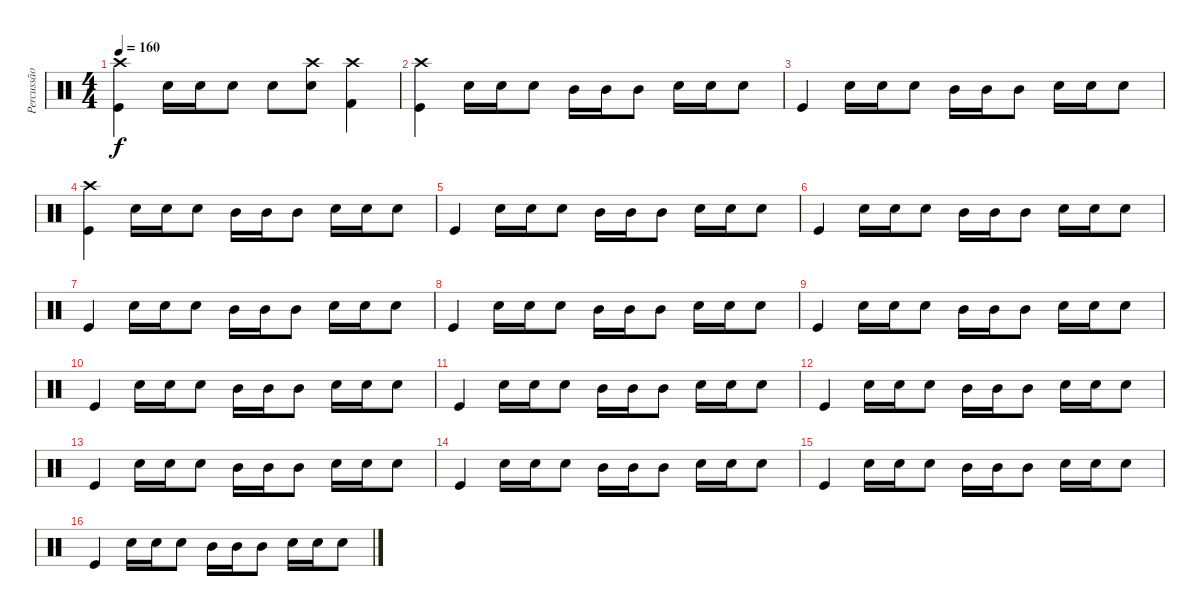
\track ("Percussão" "Percussão") {instrument percussion}
\staff {score}
\articulation defaults
\ts (4 4)
\tempo 160
\clef neutral
\ks c
("Crash high (hit)" "Kick (hit)").4{dy f} "Snare (hit) 2".16 "Snare (hit) 2".16 "Snare (hit) 2".8 "Snare (hit) 2".8 ("Crash high (hit)" "Snare (hit) 2").8 ("Crash high (hit)" "Kick (hit) 2").4 |
("Crash high (hit)" "Kick (hit)").4 "Snare (hit) 2".16 "Snare (hit) 2".16 "Snare (hit) 2".8 "Mid Tom (hit)".16 "Mid Tom (hit)".16 "Mid Tom (hit)".8 "Snare (hit) 2".16 "Snare (hit) 2".16 "Snare (hit) 2".8 |
"Kick (hit)".4 "Snare (hit) 2".16 "Snare (hit) 2".16 "Snare (hit) 2".8 "Mid Tom (hit)".16 "Mid Tom (hit)".16 "Mid Tom (hit)".8 "Snare (hit) 2".16 "Snare (hit) 2".16 "Snare (hit) 2".8 |
("Crash high (hit)" "Kick (hit)").4 "Snare (hit) 2".16 "Snare (hit) 2".16 "Snare (hit) 2".8 "Mid Tom (hit)".16 "Mid Tom (hit)".16 "Mid Tom (hit)".8 "Snare (hit) 2".16 "Snare (hit) 2".16 "Snare (hit) 2".8 |
"Kick (hit)".4 "Snare (hit) 2".16 "Snare (hit) 2".16 "Snare (hit) 2".8 "Mid Tom (hit)".16 "Mid Tom (hit)".16 "Mid Tom (hit)".8 "Snare (hit) 2".16 "Snare (hit) 2".16 "Snare (hit) 2".8 |
"Kick (hit)".4 "Snare (hit) 2".16 "Snare (hit) 2".16 "Snare (hit) 2".8 "Mid Tom (hit)".16 "Mid Tom (hit)".16 "Mid Tom (hit)".8 "Snare (hit) 2".16 "Snare (hit) 2".16 "Snare (hit) 2".8 |
"Kick (hit)".4 "Snare (hit) 2".16 "Snare (hit) 2".16 "Snare (hit) 2".8 "Mid Tom (hit)".16 "Mid Tom (hit)".16 "Mid Tom (hit)".8 "Snare (hit) 2".16 "Snare (hit) 2".16 "Snare (hit) 2".8 |
"Kick (hit)".4 "Snare (hit) 2".16 "Snare (hit) 2".16 "Snare (hit) 2".8 "Mid Tom (hit)".16 "Mid Tom (hit)".16 "Mid Tom (hit)".8 "Snare (hit) 2".16 "Snare (hit) 2".16 "Snare (hit) 2".8 |
"Kick (hit)".4 "Snare (hit) 2".16 "Snare (hit) 2".16 "Snare (hit) 2".8 "Mid Tom (hit)".16 "Mid Tom (hit)".16 "Mid Tom (hit)".8 "Snare (hit) 2".16 "Snare (hit) 2".16 "Snare (hit) 2".8 |
"Kick (hit)".4 "Snare (hit) 2".16 "Snare (hit) 2".16 "Snare (hit) 2".8 "Mid Tom (hit)".16 "Mid Tom (hit)".16 "Mid Tom (hit)".8 "Snare (hit) 2".16 "Snare (hit) 2".16 "Snare (hit) 2".8 |
"Kick (hit)".4 "Snare (hit) 2".16 "Snare (hit) 2".16 "Snare (hit) 2".8 "Mid Tom (hit)".16 "Mid Tom (hit)".16 "Mid Tom (hit)".8 "Snare (hit) 2".16 "Snare (hit) 2".16 "Snare (hit) 2".8 |
"Kick (hit)".4 "Snare (hit) 2".16 "Snare (hit) 2".16 "Snare (hit) 2".8 "Mid Tom (hit)".16 "Mid Tom (hit)".16 "Mid Tom (hit)".8 "Snare (hit) 2".16 "Snare (hit) 2".16 "Snare (hit) 2".8 |
"Kick (hit)".4 "Snare (hit) 2".16 "Snare (hit) 2".16 "Snare (hit) 2".8 "Mid Tom (hit)".16 "Mid Tom (hit)".16 "Mid Tom (hit)".8 "Snare (hit) 2".16 "Snare (hit) 2".16 "Snare (hit) 2".8 |
"Kick (hit)".4 "Snare (hit) 2".16 "Snare (hit) 2".16 "Snare (hit) 2".8 "Mid Tom (hit)".16 "Mid Tom (hit)".16 "Mid Tom (hit)".8 "Snare (hit) 2".16 "Snare (hit) 2".16 "Snare (hit) 2".8 |
"Kick (hit)".4 "Snare (hit) 2".16 "Snare (hit) 2".16 "Snare (hit) 2".8 "Mid Tom (hit)".16 "Mid Tom (hit)".16 "Mid Tom (hit)".8 "Snare (hit) 2".16 "Snare (hit) 2".16 "Snare (hit) 2".8 |
"Kick (hit)".4 "Snare (hit) 2".16 "Snare (hit) 2".16 "Snare (hit) 2".8 "Mid Tom (hit)".16 "Mid Tom (hit)".16 "Mid Tom (hit)".8 "Snare (hit) 2".16 "Snare (hit) 2".16 "Snare (hit) 2".8
